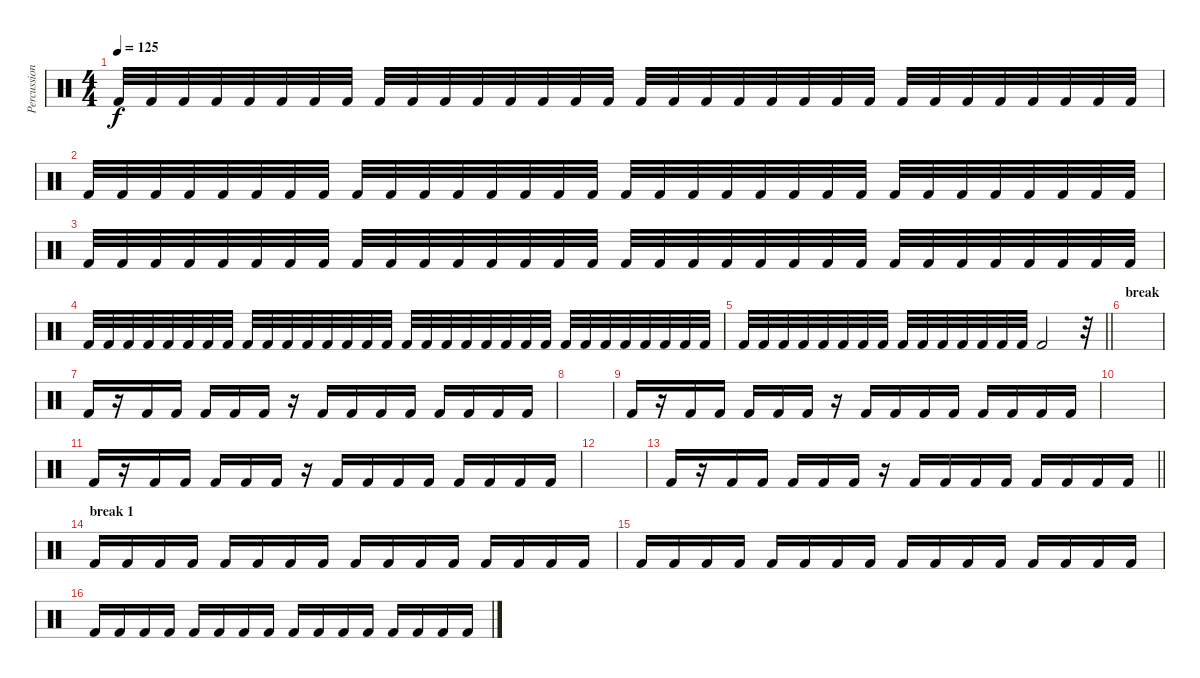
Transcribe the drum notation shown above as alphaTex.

\track ("Percussion" "Percussion") {instrument percussion}
\staff {score}
\articulation defaults
\ts (4 4)
\tempo 125
\clef neutral
\ks c "Kick (hit) 2".32{dy f} "Kick (hit) 2".32 "Kick (hit) 2".32 "Kick (hit) 2".32 "Kick (hit) 2".32 "Kick (hit) 2".32 "Kick (hit) 2".32 "Kick (hit) 2".32 "Kick (hit) 2".32 "Kick (hit) 2".32 "Kick (hit) 2".32 "Kick (hit) 2".32 "Kick (hit) 2".32 "Kick (hit) 2".32 "Kick (hit) 2".32 "Kick (hit) 2".32 "Kick (hit) 2".32 "Kick (hit) 2".32 "Kick (hit) 2".32 "Kick (hit) 2".32 "Kick (hit) 2".32 "Kick (hit) 2".32 "Kick (hit) 2".32 "Kick (hit) 2".32 "Kick (hit) 2".32 "Kick (hit) 2".32 "Kick (hit) 2".32 "Kick (hit) 2".32 "Kick (hit) 2".32 "Kick (hit) 2".32 "Kick (hit) 2".32 "Kick (hit) 2".32
|
"Kick (hit) 2".32 "Kick (hit) 2".32 "Kick (hit) 2".32 "Kick (hit) 2".32 "Kick (hit) 2".32 "Kick (hit) 2".32 "Kick (hit) 2".32 "Kick (hit) 2".32 "Kick (hit) 2".32 "Kick (hit) 2".32 "Kick (hit) 2".32 "Kick (hit) 2".32 "Kick (hit) 2".32 "Kick (hit) 2".32 "Kick (hit) 2".32 "Kick (hit) 2".32 "Kick (hit) 2".32 "Kick (hit) 2".32 "Kick (hit) 2".32 "Kick (hit) 2".32 "Kick (hit) 2".32 "Kick (hit) 2".32 "Kick (hit) 2".32 "Kick (hit) 2".32 "Kick (hit) 2".32 "Kick (hit) 2".32 "Kick (hit) 2".32 "Kick (hit) 2".32 "Kick (hit) 2".32 "Kick (hit) 2".32 "Kick (hit) 2".32 "Kick (hit) 2".32 |
"Kick (hit) 2".32 "Kick (hit) 2".32 "Kick (hit) 2".32 "Kick (hit) 2".32 "Kick (hit) 2".32 "Kick (hit) 2".32 "Kick (hit) 2".32 "Kick (hit) 2".32 "Kick (hit) 2".32 "Kick (hit) 2".32 "Kick (hit) 2".32 "Kick (hit) 2".32 "Kick (hit) 2".32 "Kick (hit) 2".32 "Kick (hit) 2".32 "Kick (hit) 2".32 "Kick (hit) 2".32 "Kick (hit) 2".32 "Kick (hit) 2".32 "Kick (hit) 2".32 "Kick (hit) 2".32 "Kick (hit) 2".32 "Kick (hit) 2".32 "Kick (hit) 2".32 "Kick (hit) 2".32 "Kick (hit) 2".32 "Kick (hit) 2".32 "Kick (hit) 2".32 "Kick (hit) 2".32 "Kick (hit) 2".32 "Kick (hit) 2".32 "Kick (hit) 2".32 |
"Kick (hit) 2".32 "Kick (hit) 2".32 "Kick (hit) 2".32 "Kick (hit) 2".32 "Kick (hit) 2".32 "Kick (hit) 2".32 "Kick (hit) 2".32 "Kick (hit) 2".32 "Kick (hit) 2".32 "Kick (hit) 2".32 "Kick (hit) 2".32 "Kick (hit) 2".32 "Kick (hit) 2".32 "Kick (hit) 2".32 "Kick (hit) 2".32 "Kick (hit) 2".32 "Kick (hit) 2".32 "Kick (hit) 2".32 "Kick (hit) 2".32 "Kick (hit) 2".32 "Kick (hit) 2".32 "Kick (hit) 2".32 "Kick (hit) 2".32 "Kick (hit) 2".32 "Kick (hit) 2".32 "Kick (hit) 2".32 "Kick (hit) 2".32 "Kick (hit) 2".32 "Kick (hit) 2".32 "Kick (hit) 2".32 "Kick (hit) 2".32 "Kick (hit) 2".32 |
\barLineRight lightlight "Kick (hit) 2".32 "Kick (hit) 2".32 "Kick (hit) 2".32 "Kick (hit) 2".32 "Kick (hit) 2".32 "Kick (hit) 2".32 "Kick (hit) 2".32 "Kick (hit) 2".32 "Kick (hit) 2".32 "Kick (hit) 2".32 "Kick (hit) 2".32 "Kick (hit) 2".32 "Kick (hit) 2".32 "Kick (hit) 2".32 "Kick (hit) 2".32 "Kick (hit) 2".2
r.32 |
\section ("" "break")
|
"Kick (hit) 2".16 r.16 "Kick (hit) 2".16 "Kick (hit) 2".16 "Kick (hit) 2".16 "Kick (hit) 2".16 "Kick (hit) 2".16 r.16 "Kick (hit) 2".16 "Kick (hit) 2".16 "Kick (hit) 2".16 "Kick (hit) 2".16 "Kick (hit) 2".16 "Kick (hit) 2".16 "Kick (hit) 2".16 "Kick (hit) 2".16 |
|
"Kick (hit) 2".16 r.16 "Kick (hit) 2".16 "Kick (hit) 2".16 "Kick (hit) 2".16 "Kick (hit) 2".16 "Kick (hit) 2".16 r.16 "Kick (hit) 2".16 "Kick (hit) 2".16 "Kick (hit) 2".16 "Kick (hit) 2".16 "Kick (hit) 2".16 "Kick (hit) 2".16 "Kick (hit) 2".16 "Kick (hit) 2".16 |
|
"Kick (hit) 2".16 r.16 "Kick (hit) 2".16 "Kick (hit) 2".16 "Kick (hit) 2".16 "Kick (hit) 2".16 "Kick (hit) 2".16 r.16 "Kick (hit) 2".16 "Kick (hit) 2".16 "Kick (hit) 2".16 "Kick (hit) 2".16 "Kick (hit) 2".16 "Kick (hit) 2".16 "Kick (hit) 2".16 "Kick (hit) 2".16 |
|
\barLineRight lightlight "Kick (hit) 2".16
r.16 "Kick (hit) 2".16 "Kick (hit) 2".16 "Kick (hit) 2".16 "Kick (hit) 2".16 "Kick (hit) 2".16 r.16 "Kick (hit) 2".16 "Kick (hit) 2".16 "Kick (hit) 2".16 "Kick (hit) 2".16 "Kick (hit) 2".16 "Kick (hit) 2".16 "Kick (hit) 2".16 "Kick (hit) 2".16 |
\section ("" "break 1")
"Kick (hit) 2".16 "Kick (hit) 2".16 "Kick (hit) 2".16 "Kick (hit) 2".16 "Kick (hit) 2".16 "Kick (hit) 2".16 "Kick (hit) 2".16 "Kick (hit) 2".16 "Kick (hit) 2".16 "Kick (hit) 2".16 "Kick (hit) 2".16 "Kick (hit) 2".16 "Kick (hit) 2".16 "Kick (hit) 2".16 "Kick (hit) 2".16 "Kick (hit) 2".16 |
"Kick (hit) 2".16 "Kick (hit) 2".16 "Kick (hit) 2".16 "Kick (hit) 2".16 "Kick (hit) 2".16 "Kick (hit) 2".16 "Kick (hit) 2".16 "Kick (hit) 2".16 "Kick (hit) 2".16 "Kick (hit) 2".16 "Kick (hit) 2".16 "Kick (hit) 2".16 "Kick (hit) 2".16 "Kick (hit) 2".16 "Kick (hit) 2".16 "Kick (hit) 2".16 |
"Kick (hit) 2".16 "Kick (hit) 2".16 "Kick (hit) 2".16 "Kick (hit) 2".16 "Kick (hit) 2".16 "Kick (hit) 2".16 "Kick (hit) 2".16 "Kick (hit) 2".16 "Kick (hit) 2".16 "Kick (hit) 2".16 "Kick (hit) 2".16 "Kick (hit) 2".16 "Kick (hit) 2".16 "Kick (hit) 2".16 "Kick (hit) 2".16 "Kick (hit) 2".16
